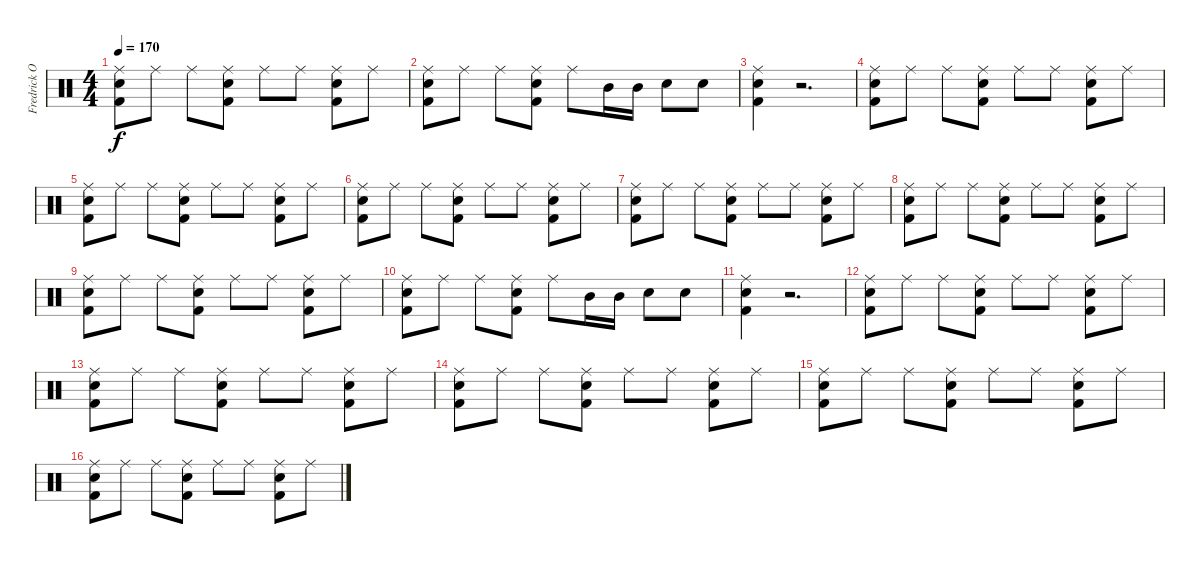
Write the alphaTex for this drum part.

\track ("Fredrick Oscarsson (Drums)" "Fredrick O") {instrument percussion}
\staff {score}
\articulation defaults
\ts (4 4)
\tempo 170
\clef neutral
\ks c
("Ride (middle)" "Snare (hit) 2" "Kick (hit) 2").8{dy f} "Ride (middle)".8 "Ride (middle)".8 ("Ride (middle)" "Snare (hit) 2" "Kick (hit) 2").8 "Ride (middle)".8 "Ride (middle)".8 ("Ride (middle)" "Snare (hit) 2" "Kick (hit) 2").8 "Ride (middle)".8 |
("Ride (middle)" "Snare (hit) 2" "Kick (hit) 2").8 "Ride (middle)".8 "Ride (middle)".8 ("Ride (middle)" "Snare (hit) 2" "Kick (hit) 2").8 "Ride (middle)".8 "Mid Tom (hit)".16 "Mid Tom (hit)".16 "Snare (hit) 2".8 "Snare (hit) 2".8 |
("Ride (middle)" "Snare (hit) 2" "Kick (hit) 2").4 r.2{d} |
("Ride (middle)" "Snare (hit) 2" "Kick (hit) 2").8 "Ride (middle)".8 "Ride (middle)".8 ("Ride (middle)" "Snare (hit) 2" "Kick (hit) 2").8 "Ride (middle)".8 "Ride (middle)".8 ("Ride (middle)" "Snare (hit) 2" "Kick (hit) 2").8 "Ride (middle)".8 |
("Ride (middle)" "Snare (hit) 2" "Kick (hit) 2").8 "Ride (middle)".8 "Ride (middle)".8 ("Ride (middle)" "Snare (hit) 2" "Kick (hit) 2").8 "Ride (middle)".8 "Ride (middle)".8 ("Ride (middle)" "Snare (hit) 2" "Kick (hit) 2").8 "Ride (middle)".8 |
("Ride (middle)" "Snare (hit) 2" "Kick (hit) 2").8 "Ride (middle)".8 "Ride (middle)".8 ("Ride (middle)" "Snare (hit) 2" "Kick (hit) 2").8 "Ride (middle)".8 "Ride (middle)".8 ("Ride (middle)" "Snare (hit) 2" "Kick (hit) 2").8 "Ride (middle)".8 |
("Ride (middle)" "Snare (hit) 2" "Kick (hit) 2").8 "Ride (middle)".8 "Ride (middle)".8 ("Ride (middle)" "Snare (hit) 2" "Kick (hit) 2").8 "Ride (middle)".8 "Ride (middle)".8 ("Ride (middle)" "Snare (hit) 2" "Kick (hit) 2").8 "Ride (middle)".8 |
("Ride (middle)" "Snare (hit) 2" "Kick (hit) 2").8 "Ride (middle)".8 "Ride (middle)".8 ("Ride (middle)" "Snare (hit) 2" "Kick (hit) 2").8 "Ride (middle)".8 "Ride (middle)".8 ("Ride (middle)" "Snare (hit) 2" "Kick (hit) 2").8 "Ride (middle)".8 |
("Ride (middle)" "Snare (hit) 2" "Kick (hit) 2").8 "Ride (middle)".8 "Ride (middle)".8 ("Ride (middle)" "Snare (hit) 2" "Kick (hit) 2").8 "Ride (middle)".8 "Ride (middle)".8 ("Ride (middle)" "Snare (hit) 2" "Kick (hit) 2").8 "Ride (middle)".8 |
("Ride (middle)" "Snare (hit) 2" "Kick (hit) 2").8 "Ride (middle)".8 "Ride (middle)".8 ("Ride (middle)" "Snare (hit) 2" "Kick (hit) 2").8 "Ride (middle)".8 "Mid Tom (hit)".16 "Mid Tom (hit)".16 "Snare (hit) 2".8 "Snare (hit) 2".8 |
("Ride (middle)" "Snare (hit) 2" "Kick (hit) 2").4 r.2{d} |
("Ride (middle)" "Snare (hit) 2" "Kick (hit) 2").8 "Ride (middle)".8 "Ride (middle)".8 ("Ride (middle)" "Snare (hit) 2" "Kick (hit) 2").8 "Ride (middle)".8 "Ride (middle)".8 ("Ride (middle)" "Snare (hit) 2" "Kick (hit) 2").8 "Ride (middle)".8 |
("Ride (middle)" "Snare (hit) 2" "Kick (hit) 2").8 "Ride (middle)".8 "Ride (middle)".8 ("Ride (middle)" "Snare (hit) 2" "Kick (hit) 2").8 "Ride (middle)".8 "Ride (middle)".8 ("Ride (middle)" "Snare (hit) 2" "Kick (hit) 2").8 "Ride (middle)".8 |
("Ride (middle)" "Snare (hit) 2" "Kick (hit) 2").8 "Ride (middle)".8 "Ride (middle)".8 ("Ride (middle)" "Snare (hit) 2" "Kick (hit) 2").8 "Ride (middle)".8 "Ride (middle)".8 ("Ride (middle)" "Snare (hit) 2" "Kick (hit) 2").8 "Ride (middle)".8 |
("Ride (middle)" "Snare (hit) 2" "Kick (hit) 2").8 "Ride (middle)".8 "Ride (middle)".8 ("Ride (middle)" "Snare (hit) 2" "Kick (hit) 2").8 "Ride (middle)".8 "Ride (middle)".8 ("Ride (middle)" "Snare (hit) 2" "Kick (hit) 2").8 "Ride (middle)".8 |
("Ride (middle)" "Snare (hit) 2" "Kick (hit) 2").8 "Ride (middle)".8 "Ride (middle)".8 ("Ride (middle)" "Snare (hit) 2" "Kick (hit) 2").8 "Ride (middle)".8 "Ride (middle)".8 ("Ride (middle)" "Snare (hit) 2" "Kick (hit) 2").8 "Ride (middle)".8
